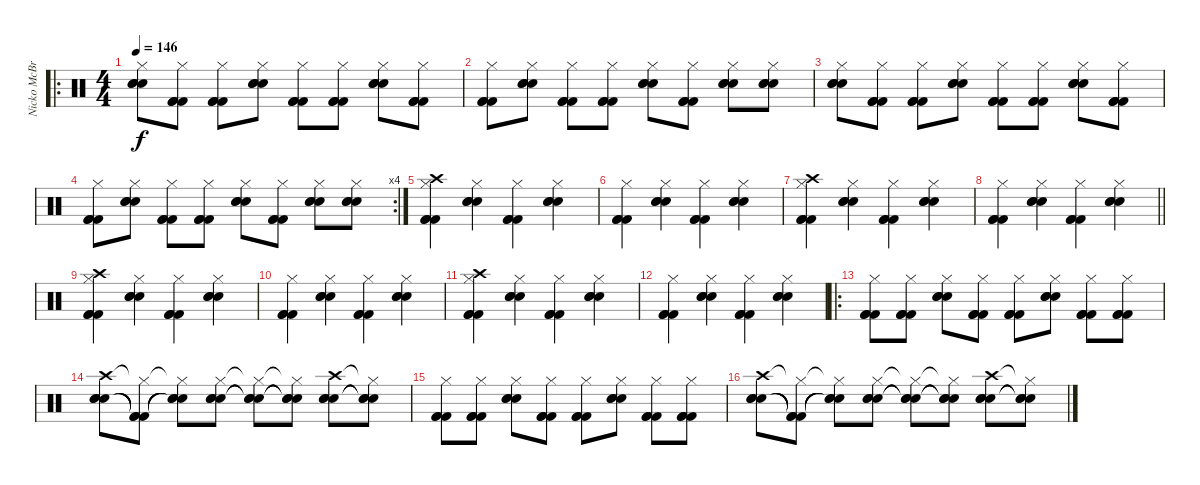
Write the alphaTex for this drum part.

\track ("Nicko McBrain" "Nicko McBr") {instrument percussion}
\staff {score}
\articulation defaults
\ro
\ts (4 4)
\tempo 146
\clef neutral
\ks c
("Hi-Hat (closed)" "Snare (hit) 2" "Snare (hit) 2" "Snare (hit) 2").8{dy f} ("Hi-Hat (closed)" "Kick (hit) 2" "Kick (hit) 2" "Kick (hit) 2").8 ("Hi-Hat (closed)" "Kick (hit) 2" "Kick (hit) 2" "Kick (hit) 2").8 ("Hi-Hat (closed)" "Snare (hit) 2" "Snare (hit) 2" "Snare (hit) 2").8 ("Hi-Hat (closed)" "Kick (hit) 2" "Kick (hit) 2" "Kick (hit) 2").8 ("Hi-Hat (closed)" "Kick (hit) 2" "Kick (hit) 2" "Kick (hit) 2").8 ("Hi-Hat (closed)" "Snare (hit) 2" "Snare (hit) 2" "Snare (hit) 2").8 ("Hi-Hat (closed)" "Kick (hit) 2" "Kick (hit) 2" "Kick (hit) 2").8 |
("Hi-Hat (closed)" "Kick (hit) 2" "Kick (hit) 2" "Kick (hit) 2").8 ("Hi-Hat (closed)" "Snare (hit) 2" "Snare (hit) 2" "Snare (hit) 2").8 ("Hi-Hat (closed)" "Kick (hit) 2" "Kick (hit) 2" "Kick (hit) 2").8 ("Hi-Hat (closed)" "Kick (hit) 2" "Kick (hit) 2" "Kick (hit) 2").8 ("Hi-Hat (closed)" "Snare (hit) 2" "Snare (hit) 2" "Snare (hit) 2").8 ("Hi-Hat (closed)" "Kick (hit) 2" "Kick (hit) 2" "Kick (hit) 2").8 ("Hi-Hat (closed)" "Snare (hit) 2" "Snare (hit) 2" "Snare (hit) 2").8 ("Hi-Hat (closed)" "Snare (hit) 2" "Snare (hit) 2" "Snare (hit) 2").8 |
("Hi-Hat (closed)" "Snare (hit) 2" "Snare (hit) 2" "Snare (hit) 2").8 ("Hi-Hat (closed)" "Kick (hit) 2" "Kick (hit) 2" "Kick (hit) 2").8 ("Hi-Hat (closed)" "Kick (hit) 2" "Kick (hit) 2" "Kick (hit) 2").8 ("Hi-Hat (closed)" "Snare (hit) 2" "Snare (hit) 2" "Snare (hit) 2").8 ("Hi-Hat (closed)" "Kick (hit) 2" "Kick (hit) 2" "Kick (hit) 2").8 ("Hi-Hat (closed)" "Kick (hit) 2" "Kick (hit) 2" "Kick (hit) 2").8 ("Hi-Hat (closed)" "Snare (hit) 2" "Snare (hit) 2" "Snare (hit) 2").8 ("Hi-Hat (closed)" "Kick (hit) 2" "Kick (hit) 2" "Kick (hit) 2").8 |
\rc 4
("Hi-Hat (closed)" "Kick (hit) 2" "Kick (hit) 2" "Kick (hit) 2").8 ("Hi-Hat (closed)" "Snare (hit) 2" "Snare (hit) 2" "Snare (hit) 2").8 ("Hi-Hat (closed)" "Kick (hit) 2" "Kick (hit) 2" "Kick (hit) 2").8 ("Hi-Hat (closed)" "Kick (hit) 2" "Kick (hit) 2" "Kick (hit) 2").8 ("Hi-Hat (closed)" "Snare (hit) 2" "Snare (hit) 2" "Snare (hit) 2").8 ("Hi-Hat (closed)" "Kick (hit) 2" "Kick (hit) 2" "Kick (hit) 2").8 ("Hi-Hat (closed)" "Snare (hit) 2" "Snare (hit) 2" "Snare (hit) 2").8 ("Hi-Hat (closed)" "Snare (hit) 2" "Snare (hit) 2" "Snare (hit) 2").8 |
("Crash high (hit)" "Hi-Hat (closed)" "Kick (hit) 2" "Kick (hit) 2" "Kick (hit) 2").4 ("Hi-Hat (closed)" "Snare (hit) 2" "Snare (hit) 2" "Snare (hit) 2").4 ("Hi-Hat (closed)" "Kick (hit) 2" "Kick (hit) 2" "Kick (hit) 2").4 ("Hi-Hat (closed)" "Snare (hit) 2" "Snare (hit) 2" "Snare (hit) 2").4 |
("Hi-Hat (closed)" "Kick (hit) 2" "Kick (hit) 2" "Kick (hit) 2").4 ("Hi-Hat (closed)" "Snare (hit) 2" "Snare (hit) 2" "Snare (hit) 2").4 ("Hi-Hat (closed)" "Kick (hit) 2" "Kick (hit) 2" "Kick (hit) 2").4 ("Hi-Hat (closed)" "Snare (hit) 2" "Snare (hit) 2" "Snare (hit) 2").4 |
("Crash high (hit)" "Hi-Hat (closed)" "Kick (hit) 2" "Kick (hit) 2" "Kick (hit) 2").4 ("Hi-Hat (closed)" "Snare (hit) 2" "Snare (hit) 2" "Snare (hit) 2").4 ("Hi-Hat (closed)" "Kick (hit) 2" "Kick (hit) 2" "Kick (hit) 2").4 ("Hi-Hat (closed)" "Snare (hit) 2" "Snare (hit) 2" "Snare (hit) 2").4 |
\barLineRight lightlight
("Hi-Hat (closed)" "Kick (hit) 2" "Kick (hit) 2" "Kick (hit) 2").4 ("Hi-Hat (closed)" "Snare (hit) 2" "Snare (hit) 2" "Snare (hit) 2").4 ("Hi-Hat (closed)" "Kick (hit) 2" "Kick (hit) 2" "Kick (hit) 2").4 ("Hi-Hat (closed)" "Snare (hit) 2" "Snare (hit) 2" "Snare (hit) 2").4 |
("Crash high (hit)" "Hi-Hat (closed)" "Kick (hit) 2" "Kick (hit) 2" "Kick (hit) 2").4 ("Hi-Hat (closed)" "Snare (hit) 2" "Snare (hit) 2" "Snare (hit) 2").4 ("Hi-Hat (closed)" "Kick (hit) 2" "Kick (hit) 2" "Kick (hit) 2").4 ("Hi-Hat (closed)" "Snare (hit) 2" "Snare (hit) 2" "Snare (hit) 2").4 |
("Hi-Hat (closed)" "Kick (hit) 2" "Kick (hit) 2" "Kick (hit) 2").4 ("Hi-Hat (closed)" "Snare (hit) 2" "Snare (hit) 2" "Snare (hit) 2").4 ("Hi-Hat (closed)" "Kick (hit) 2" "Kick (hit) 2" "Kick (hit) 2").4 ("Hi-Hat (closed)" "Snare (hit) 2" "Snare (hit) 2" "Snare (hit) 2").4 |
("Crash high (hit)" "Hi-Hat (closed)" "Kick (hit) 2" "Kick (hit) 2" "Kick (hit) 2").4 ("Hi-Hat (closed)" "Snare (hit) 2" "Snare (hit) 2" "Snare (hit) 2").4 ("Hi-Hat (closed)" "Kick (hit) 2" "Kick (hit) 2" "Kick (hit) 2").4 ("Hi-Hat (closed)" "Snare (hit) 2" "Snare (hit) 2" "Snare (hit) 2").4 |
("Hi-Hat (closed)" "Kick (hit) 2" "Kick (hit) 2" "Kick (hit) 2").4 ("Hi-Hat (closed)" "Snare (hit) 2" "Snare (hit) 2" "Snare (hit) 2").4 ("Hi-Hat (closed)" "Kick (hit) 2" "Kick (hit) 2" "Kick (hit) 2").4 ("Hi-Hat (closed)" "Snare (hit) 2" "Snare (hit) 2" "Snare (hit) 2").4 |
\ro
("Hi-Hat (closed)" "Kick (hit) 2" "Kick (hit) 2" "Kick (hit) 2").8 ("Hi-Hat (closed)" "Kick (hit) 2" "Kick (hit) 2" "Kick (hit) 2").8 ("Hi-Hat (closed)" "Snare (hit) 2" "Snare (hit) 2" "Snare (hit) 2").8 ("Hi-Hat (closed)" "Kick (hit) 2" "Kick (hit) 2" "Kick (hit) 2").8 ("Hi-Hat (closed)" "Kick (hit) 2" "Kick (hit) 2" "Kick (hit) 2").8 ("Hi-Hat (closed)" "Snare (hit) 2" "Snare (hit) 2" "Snare (hit) 2").8 ("Hi-Hat (closed)" "Kick (hit) 2" "Kick (hit) 2" "Kick (hit) 2").8 ("Hi-Hat (closed)" "Kick (hit) 2" "Kick (hit) 2" "Kick (hit) 2").8 |
("Crash high (hit)" "Snare (hit) 2" "Snare (hit) 2" "Snare (hit) 2").8 ("Hi-Hat (closed)"{t} "Kick (hit) 2"{t} "Kick (hit) 2"{t} "Kick (hit) 2"{t}).8 ("Hi-Hat (closed)"{t} "Snare (hit) 2"{t} "Snare (hit) 2"{t} "Snare (hit) 2"{t}).8 ("Hi-Hat (closed)" "Snare (hit) 2" "Snare (hit) 2" "Snare (hit) 2").8 ("Hi-Hat (closed)"{t} "Snare (hit) 2"{t} "Snare (hit) 2"{t} "Snare (hit) 2"{t}).8 ("Hi-Hat (closed)"{t} "Snare (hit) 2"{t} "Snare (hit) 2"{t} "Snare (hit) 2"{t}).8 ("Crash high (hit)" "Snare (hit) 2" "Snare (hit) 2" "Snare (hit) 2").8 ("Hi-Hat (closed)"{t} "Snare (hit) 2"{t} "Snare (hit) 2"{t} "Snare (hit) 2"{t}).8 |
("Hi-Hat (closed)" "Kick (hit) 2" "Kick (hit) 2" "Kick (hit) 2").8 ("Hi-Hat (closed)" "Kick (hit) 2" "Kick (hit) 2" "Kick (hit) 2").8 ("Hi-Hat (closed)" "Snare (hit) 2" "Snare (hit) 2" "Snare (hit) 2").8 ("Hi-Hat (closed)" "Kick (hit) 2" "Kick (hit) 2" "Kick (hit) 2").8 ("Hi-Hat (closed)" "Kick (hit) 2" "Kick (hit) 2" "Kick (hit) 2").8 ("Hi-Hat (closed)" "Snare (hit) 2" "Snare (hit) 2" "Snare (hit) 2").8 ("Hi-Hat (closed)" "Kick (hit) 2" "Kick (hit) 2" "Kick (hit) 2").8 ("Hi-Hat (closed)" "Kick (hit) 2" "Kick (hit) 2" "Kick (hit) 2").8 |
("Crash high (hit)" "Snare (hit) 2" "Snare (hit) 2" "Snare (hit) 2").8 ("Hi-Hat (closed)"{t} "Kick (hit) 2"{t} "Kick (hit) 2"{t} "Kick (hit) 2"{t}).8 ("Hi-Hat (closed)"{t} "Snare (hit) 2"{t} "Snare (hit) 2"{t} "Snare (hit) 2"{t}).8 ("Hi-Hat (closed)" "Snare (hit) 2" "Snare (hit) 2" "Snare (hit) 2").8 ("Hi-Hat (closed)"{t} "Snare (hit) 2"{t} "Snare (hit) 2"{t} "Snare (hit) 2"{t}).8 ("Hi-Hat (closed)"{t} "Snare (hit) 2"{t} "Snare (hit) 2"{t} "Snare (hit) 2"{t}).8 ("Crash high (hit)" "Snare (hit) 2" "Snare (hit) 2" "Snare (hit) 2").8 ("Hi-Hat (closed)"{t} "Snare (hit) 2"{t} "Snare (hit) 2"{t} "Snare (hit) 2"{t}).8
